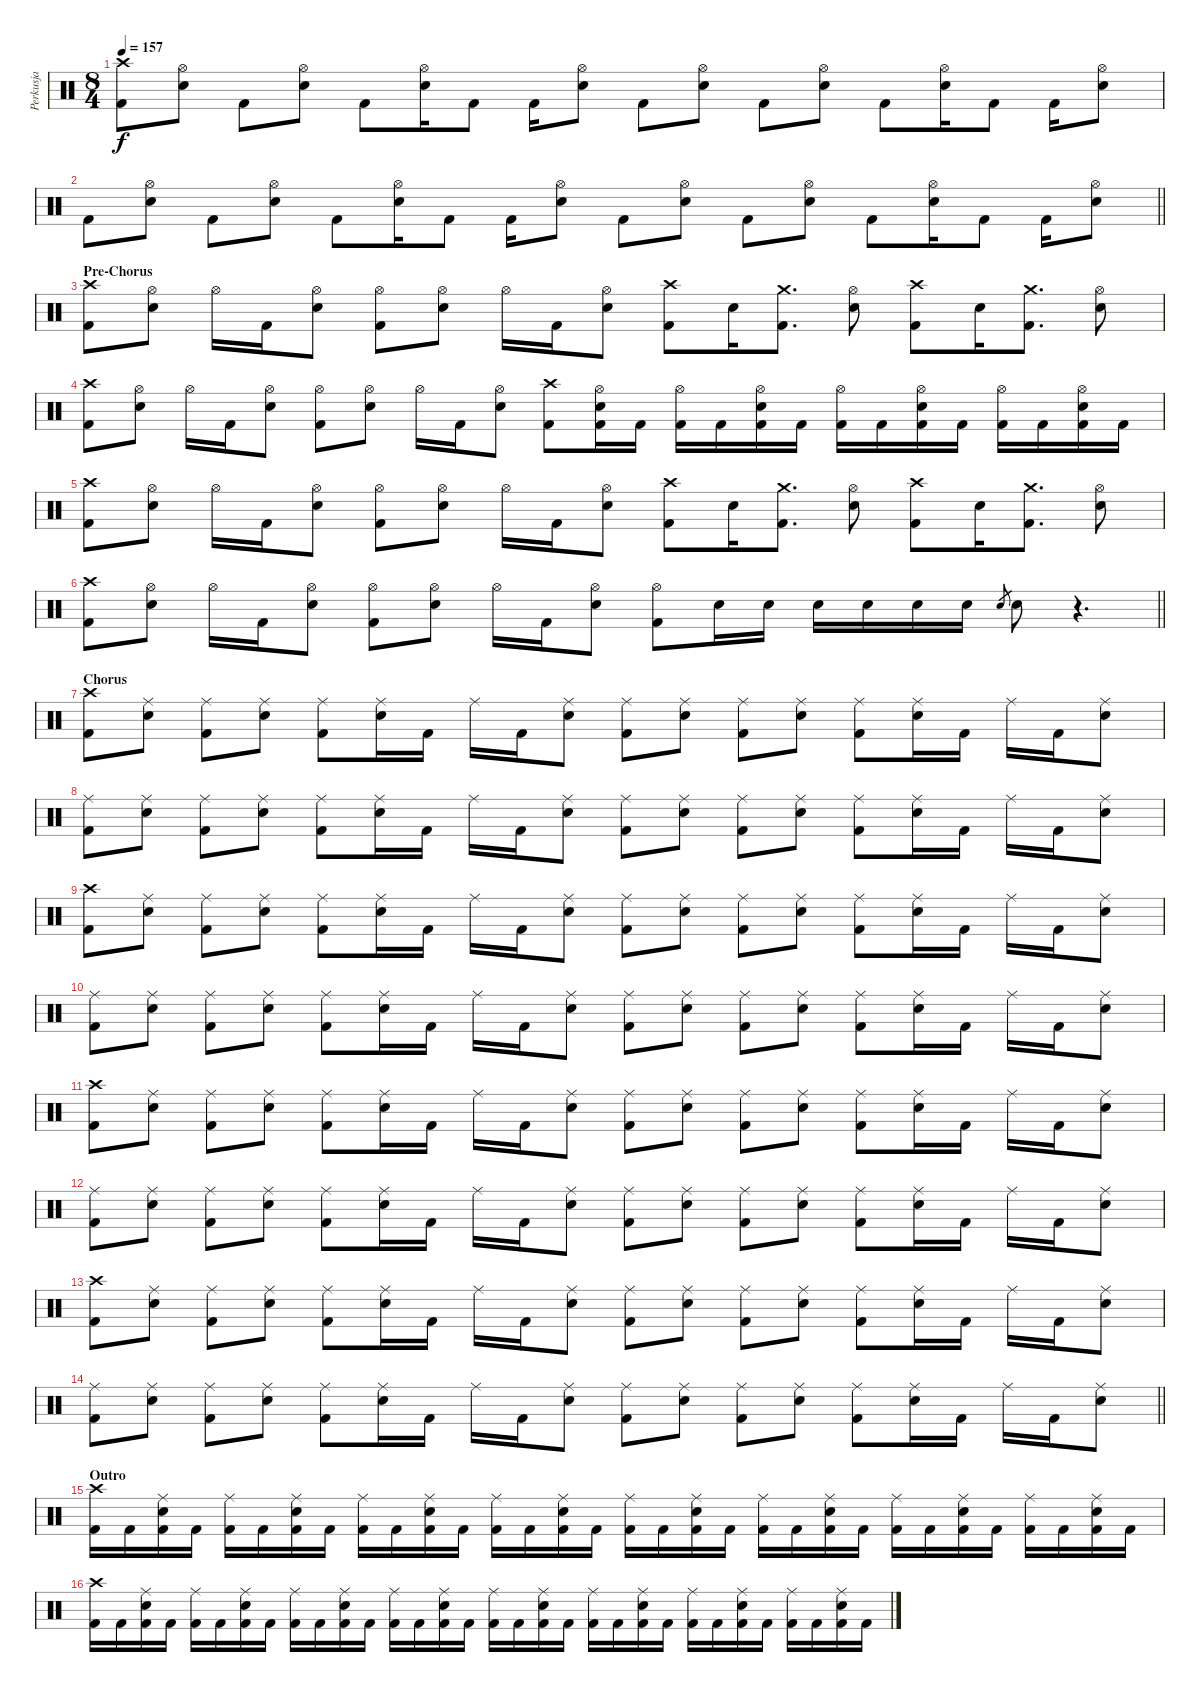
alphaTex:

\track ("Perkusja" "Perkusja") {instrument percussion}
\staff {score}
\articulation defaults
\ts (8 4)
\tempo 157
\clef neutral
\ks c
("Crash high (hit)" "Kick (hit) 2").8{dy f} ("Hi-Hat (open)" "Snare (hit) 2").8 "Kick (hit) 2".8 ("Hi-Hat (open)" "Snare (hit) 2").8 "Kick (hit) 2".8 ("Hi-Hat (open)" "Snare (hit) 2").16 "Kick (hit) 2".8 "Kick (hit) 2".16 ("Hi-Hat (open)" "Snare (hit) 2").8 "Kick (hit) 2".8 ("Hi-Hat (open)" "Snare (hit) 2").8 "Kick (hit) 2".8 ("Hi-Hat (open)" "Snare (hit) 2").8 "Kick (hit) 2".8 ("Hi-Hat (open)" "Snare (hit) 2").16 "Kick (hit) 2".8 "Kick (hit) 2".16 ("Hi-Hat (open)" "Snare (hit) 2").8 |
\barLineRight lightlight "Kick (hit) 2".8
("Hi-Hat (open)" "Snare (hit) 2").8 "Kick (hit) 2".8 ("Hi-Hat (open)" "Snare (hit) 2").8 "Kick (hit) 2".8 ("Hi-Hat (open)" "Snare (hit) 2").16 "Kick (hit) 2".8 "Kick (hit) 2".16 ("Hi-Hat (open)" "Snare (hit) 2").8 "Kick (hit) 2".8 ("Hi-Hat (open)" "Snare (hit) 2").8 "Kick (hit) 2".8 ("Hi-Hat (open)" "Snare (hit) 2").8 "Kick (hit) 2".8 ("Hi-Hat (open)" "Snare (hit) 2").16 "Kick (hit) 2".8 "Kick (hit) 2".16 ("Hi-Hat (open)" "Snare (hit) 2").8 |
\section ("" "Pre-Chorus")
("Crash high (hit)" "Kick (hit) 2").8 ("Hi-Hat (open)" "Snare (hit) 2").8 "Hi-Hat (open)".16 "Kick (hit) 2".16 ("Hi-Hat (open)" "Snare (hit) 2").8 ("Hi-Hat (open)" "Kick (hit) 2").8 ("Hi-Hat (open)" "Snare (hit) 2").8 "Hi-Hat (open)".16 "Kick (hit) 2".16 ("Hi-Hat (open)" "Snare (hit) 2").8 ("Crash high (hit)" "Kick (hit) 2").8 "Snare (hit) 2".16 ("Crash medium (hit)" "Kick (hit) 2").8{d} ("Hi-Hat (open)" "Snare (hit) 2").8 ("Crash high (hit)" "Kick (hit) 2").8 "Snare (hit) 2".16 ("Crash medium (hit)" "Kick (hit) 2").8{d} ("Hi-Hat (open)" "Snare (hit) 2").8 |
("Crash high (hit)" "Kick (hit) 2").8 ("Hi-Hat (open)" "Snare (hit) 2").8 "Hi-Hat (open)".16 "Kick (hit) 2".16 ("Hi-Hat (open)" "Snare (hit) 2").8 ("Hi-Hat (open)" "Kick (hit) 2").8 ("Hi-Hat (open)" "Snare (hit) 2").8 "Hi-Hat (open)".16 "Kick (hit) 2".16 ("Hi-Hat (open)" "Snare (hit) 2").8 ("Crash high (hit)" "Kick (hit) 2").8 ("Hi-Hat (open)" "Snare (hit) 2" "Kick (hit) 2").16 "Kick (hit) 2".16 ("Hi-Hat (open)" "Kick (hit) 2").16 "Kick (hit) 2".16 ("Hi-Hat (open)" "Snare (hit) 2" "Kick (hit) 2").16 "Kick (hit) 2".16 ("Hi-Hat (open)" "Kick (hit) 2").16 "Kick (hit) 2".16 ("Hi-Hat (open)" "Snare (hit) 2" "Kick (hit) 2").16 "Kick (hit) 2".16 ("Hi-Hat (open)" "Kick (hit) 2").16 "Kick (hit) 2".16 ("Hi-Hat (open)" "Snare (hit) 2" "Kick (hit) 2").16 "Kick (hit) 2".16 |
("Crash high (hit)" "Kick (hit) 2").8 ("Hi-Hat (open)" "Snare (hit) 2").8 "Hi-Hat (open)".16 "Kick (hit) 2".16 ("Hi-Hat (open)" "Snare (hit) 2").8 ("Hi-Hat (open)" "Kick (hit) 2").8 ("Hi-Hat (open)" "Snare (hit) 2").8 "Hi-Hat (open)".16 "Kick (hit) 2".16 ("Hi-Hat (open)" "Snare (hit) 2").8 ("Crash high (hit)" "Kick (hit) 2").8 "Snare (hit) 2".16 ("Crash medium (hit)" "Kick (hit) 2").8{d} ("Hi-Hat (open)" "Snare (hit) 2").8 ("Crash high (hit)" "Kick (hit) 2").8 "Snare (hit) 2".16 ("Crash medium (hit)" "Kick (hit) 2").8{d} ("Hi-Hat (open)" "Snare (hit) 2").8 |
\barLineRight lightlight
("Crash high (hit)" "Kick (hit) 2").8 ("Hi-Hat (open)" "Snare (hit) 2").8 "Hi-Hat (open)".16 "Kick (hit) 2".16 ("Hi-Hat (open)" "Snare (hit) 2").8 ("Hi-Hat (open)" "Kick (hit) 2").8 ("Hi-Hat (open)" "Snare (hit) 2").8 "Hi-Hat (open)".16 "Kick (hit) 2".16 ("Hi-Hat (open)" "Snare (hit) 2").8 ("Hi-Hat (open)" "Kick (hit) 2").8 "Snare (hit) 2".16 "Snare (hit) 2".16 "Snare (hit) 2".16 "Snare (hit) 2".16 "Snare (hit) 2".16 "Snare (hit) 2".16 "Snare (hit) 2".8{gr} "Snare (hit) 2".8 r.4{d} |
\section ("" "Chorus")
("Crash high (hit)" "Kick (hit) 2").8 ("Ride (middle)" "Snare (hit) 2").8 ("Ride (middle)" "Kick (hit) 2").8 ("Ride (middle)" "Snare (hit) 2").8 ("Ride (middle)" "Kick (hit) 2").8 ("Ride (middle)" "Snare (hit) 2").16 "Kick (hit) 2".16 "Ride (middle)".16 "Kick (hit) 2".16 ("Ride (middle)" "Snare (hit) 2").8 ("Ride (middle)" "Kick (hit) 2").8 ("Ride (middle)" "Snare (hit) 2").8 ("Ride (middle)" "Kick (hit) 2").8 ("Ride (middle)" "Snare (hit) 2").8 ("Ride (middle)" "Kick (hit) 2").8 ("Ride (middle)" "Snare (hit) 2").16 "Kick (hit) 2".16 "Ride (middle)".16 "Kick (hit) 2".16 ("Ride (middle)" "Snare (hit) 2").8 |
("Ride (middle)" "Kick (hit) 2").8 ("Ride (middle)" "Snare (hit) 2").8 ("Ride (middle)" "Kick (hit) 2").8 ("Ride (middle)" "Snare (hit) 2").8 ("Ride (middle)" "Kick (hit) 2").8 ("Ride (middle)" "Snare (hit) 2").16 "Kick (hit) 2".16 "Ride (middle)".16 "Kick (hit) 2".16 ("Ride (middle)" "Snare (hit) 2").8 ("Ride (middle)" "Kick (hit) 2").8 ("Ride (middle)" "Snare (hit) 2").8 ("Ride (middle)" "Kick (hit) 2").8 ("Ride (middle)" "Snare (hit) 2").8 ("Ride (middle)" "Kick (hit) 2").8 ("Ride (middle)" "Snare (hit) 2").16 "Kick (hit) 2".16 "Ride (middle)".16 "Kick (hit) 2".16 ("Ride (middle)" "Snare (hit) 2").8 |
("Crash high (hit)" "Kick (hit) 2").8 ("Ride (middle)" "Snare (hit) 2").8 ("Ride (middle)" "Kick (hit) 2").8 ("Ride (middle)" "Snare (hit) 2").8 ("Ride (middle)" "Kick (hit) 2").8 ("Ride (middle)" "Snare (hit) 2").16 "Kick (hit) 2".16 "Ride (middle)".16 "Kick (hit) 2".16 ("Ride (middle)" "Snare (hit) 2").8 ("Ride (middle)" "Kick (hit) 2").8 ("Ride (middle)" "Snare (hit) 2").8 ("Ride (middle)" "Kick (hit) 2").8 ("Ride (middle)" "Snare (hit) 2").8 ("Ride (middle)" "Kick (hit) 2").8 ("Ride (middle)" "Snare (hit) 2").16 "Kick (hit) 2".16 "Ride (middle)".16 "Kick (hit) 2".16 ("Ride (middle)" "Snare (hit) 2").8 |
("Ride (middle)" "Kick (hit) 2").8 ("Ride (middle)" "Snare (hit) 2").8 ("Ride (middle)" "Kick (hit) 2").8 ("Ride (middle)" "Snare (hit) 2").8 ("Ride (middle)" "Kick (hit) 2").8 ("Ride (middle)" "Snare (hit) 2").16 "Kick (hit) 2".16 "Ride (middle)".16 "Kick (hit) 2".16 ("Ride (middle)" "Snare (hit) 2").8 ("Ride (middle)" "Kick (hit) 2").8 ("Ride (middle)" "Snare (hit) 2").8 ("Ride (middle)" "Kick (hit) 2").8 ("Ride (middle)" "Snare (hit) 2").8 ("Ride (middle)" "Kick (hit) 2").8 ("Ride (middle)" "Snare (hit) 2").16 "Kick (hit) 2".16 "Ride (middle)".16 "Kick (hit) 2".16 ("Ride (middle)" "Snare (hit) 2").8 |
("Crash high (hit)" "Kick (hit) 2").8 ("Ride (middle)" "Snare (hit) 2").8 ("Ride (middle)" "Kick (hit) 2").8 ("Ride (middle)" "Snare (hit) 2").8 ("Ride (middle)" "Kick (hit) 2").8 ("Ride (middle)" "Snare (hit) 2").16 "Kick (hit) 2".16 "Ride (middle)".16 "Kick (hit) 2".16 ("Ride (middle)" "Snare (hit) 2").8 ("Ride (middle)" "Kick (hit) 2").8 ("Ride (middle)" "Snare (hit) 2").8 ("Ride (middle)" "Kick (hit) 2").8 ("Ride (middle)" "Snare (hit) 2").8 ("Ride (middle)" "Kick (hit) 2").8 ("Ride (middle)" "Snare (hit) 2").16 "Kick (hit) 2".16 "Ride (middle)".16 "Kick (hit) 2".16 ("Ride (middle)" "Snare (hit) 2").8 |
("Ride (middle)" "Kick (hit) 2").8 ("Ride (middle)" "Snare (hit) 2").8 ("Ride (middle)" "Kick (hit) 2").8 ("Ride (middle)" "Snare (hit) 2").8 ("Ride (middle)" "Kick (hit) 2").8 ("Ride (middle)" "Snare (hit) 2").16 "Kick (hit) 2".16 "Ride (middle)".16 "Kick (hit) 2".16 ("Ride (middle)" "Snare (hit) 2").8 ("Ride (middle)" "Kick (hit) 2").8 ("Ride (middle)" "Snare (hit) 2").8 ("Ride (middle)" "Kick (hit) 2").8 ("Ride (middle)" "Snare (hit) 2").8 ("Ride (middle)" "Kick (hit) 2").8 ("Ride (middle)" "Snare (hit) 2").16 "Kick (hit) 2".16 "Ride (middle)".16 "Kick (hit) 2".16 ("Ride (middle)" "Snare (hit) 2").8 |
("Crash high (hit)" "Kick (hit) 2").8 ("Ride (middle)" "Snare (hit) 2").8 ("Ride (middle)" "Kick (hit) 2").8 ("Ride (middle)" "Snare (hit) 2").8 ("Ride (middle)" "Kick (hit) 2").8 ("Ride (middle)" "Snare (hit) 2").16 "Kick (hit) 2".16 "Ride (middle)".16 "Kick (hit) 2".16 ("Ride (middle)" "Snare (hit) 2").8 ("Ride (middle)" "Kick (hit) 2").8 ("Ride (middle)" "Snare (hit) 2").8 ("Ride (middle)" "Kick (hit) 2").8 ("Ride (middle)" "Snare (hit) 2").8 ("Ride (middle)" "Kick (hit) 2").8 ("Ride (middle)" "Snare (hit) 2").16 "Kick (hit) 2".16 "Ride (middle)".16 "Kick (hit) 2".16 ("Ride (middle)" "Snare (hit) 2").8 |
\barLineRight lightlight
("Ride (middle)" "Kick (hit) 2").8 ("Ride (middle)" "Snare (hit) 2").8 ("Ride (middle)" "Kick (hit) 2").8 ("Ride (middle)" "Snare (hit) 2").8 ("Ride (middle)" "Kick (hit) 2").8 ("Ride (middle)" "Snare (hit) 2").16 "Kick (hit) 2".16 "Ride (middle)".16 "Kick (hit) 2".16 ("Ride (middle)" "Snare (hit) 2").8 ("Ride (middle)" "Kick (hit) 2").8 ("Ride (middle)" "Snare (hit) 2").8 ("Ride (middle)" "Kick (hit) 2").8 ("Ride (middle)" "Snare (hit) 2").8 ("Ride (middle)" "Kick (hit) 2").8 ("Ride (middle)" "Snare (hit) 2").16 "Kick (hit) 2".16 "Ride (middle)".16 "Kick (hit) 2".16 ("Ride (middle)" "Snare (hit) 2").8 |
\section ("" "Outro")
("Crash high (hit)" "Kick (hit) 2").16 "Kick (hit) 2".16 ("Ride (middle)" "Snare (hit) 2" "Kick (hit) 2").16 "Kick (hit) 2".16 ("Ride (middle)" "Kick (hit) 2").16 "Kick (hit) 2".16 ("Ride (middle)" "Snare (hit) 2" "Kick (hit) 2").16 "Kick (hit) 2".16 ("Ride (middle)" "Kick (hit) 2").16 "Kick (hit) 2".16 ("Ride (middle)" "Snare (hit) 2" "Kick (hit) 2").16 "Kick (hit) 2".16 ("Ride (middle)" "Kick (hit) 2").16 "Kick (hit) 2".16 ("Ride (middle)" "Snare (hit) 2" "Kick (hit) 2").16 "Kick (hit) 2".16 ("Ride (middle)" "Kick (hit) 2").16 "Kick (hit) 2".16 ("Ride (middle)" "Snare (hit) 2" "Kick (hit) 2").16 "Kick (hit) 2".16 ("Ride (middle)" "Kick (hit) 2").16 "Kick (hit) 2".16 ("Ride (middle)" "Snare (hit) 2" "Kick (hit) 2").16 "Kick (hit) 2".16 ("Ride (middle)" "Kick (hit) 2").16 "Kick (hit) 2".16 ("Ride (middle)" "Snare (hit) 2" "Kick (hit) 2").16 "Kick (hit) 2".16 ("Ride (middle)" "Kick (hit) 2").16 "Kick (hit) 2".16 ("Ride (middle)" "Snare (hit) 2" "Kick (hit) 2").16 "Kick (hit) 2".16 |
("Crash high (hit)" "Kick (hit) 2").16 "Kick (hit) 2".16 ("Ride (middle)" "Snare (hit) 2" "Kick (hit) 2").16 "Kick (hit) 2".16 ("Ride (middle)" "Kick (hit) 2").16 "Kick (hit) 2".16 ("Ride (middle)" "Snare (hit) 2" "Kick (hit) 2").16 "Kick (hit) 2".16 ("Ride (middle)" "Kick (hit) 2").16 "Kick (hit) 2".16 ("Ride (middle)" "Snare (hit) 2" "Kick (hit) 2").16 "Kick (hit) 2".16 ("Ride (middle)" "Kick (hit) 2").16 "Kick (hit) 2".16 ("Ride (middle)" "Snare (hit) 2" "Kick (hit) 2").16 "Kick (hit) 2".16 ("Ride (middle)" "Kick (hit) 2").16 "Kick (hit) 2".16 ("Ride (middle)" "Snare (hit) 2" "Kick (hit) 2").16 "Kick (hit) 2".16 ("Ride (middle)" "Kick (hit) 2").16 "Kick (hit) 2".16 ("Ride (middle)" "Snare (hit) 2" "Kick (hit) 2").16 "Kick (hit) 2".16 ("Ride (middle)" "Kick (hit) 2").16 "Kick (hit) 2".16 ("Ride (middle)" "Snare (hit) 2" "Kick (hit) 2").16 "Kick (hit) 2".16 ("Ride (middle)" "Kick (hit) 2").16 "Kick (hit) 2".16 ("Ride (middle)" "Snare (hit) 2" "Kick (hit) 2").16 "Kick (hit) 2".16
